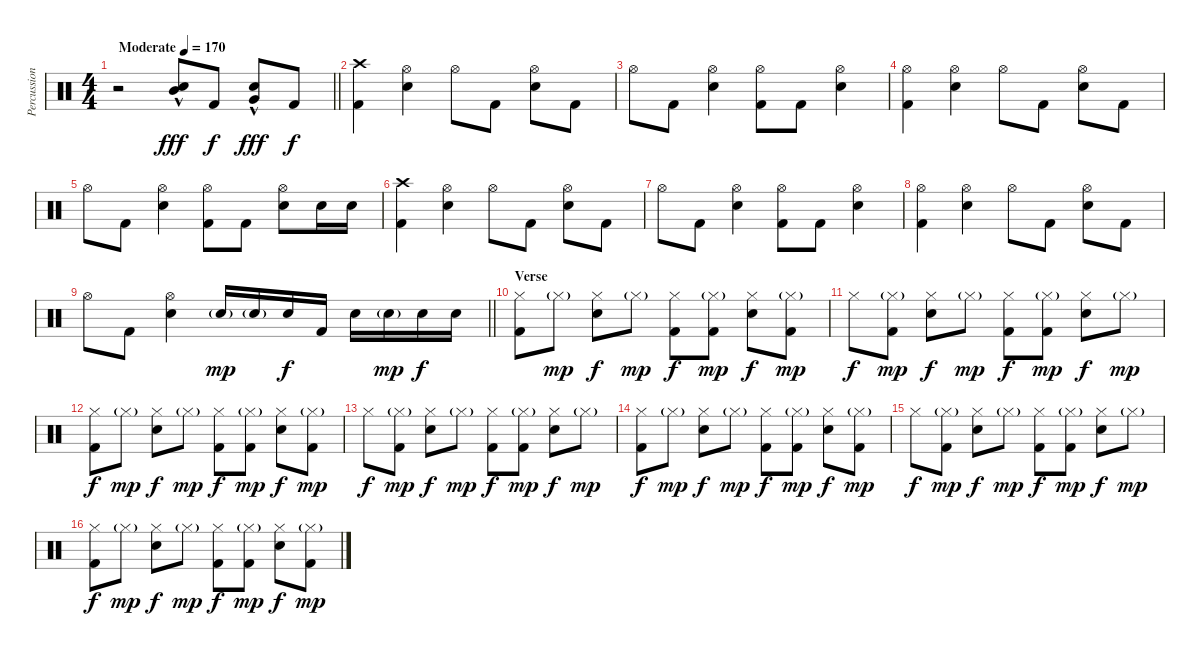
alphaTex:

\track ("Percussion" "Percussion") {instrument percussion}
\staff {score}
\articulation defaults
\ts (4 4)
\tempo (170 "Moderate")
\clef neutral
\barLineRight lightlight
\ks c
r.2{dy fff volume 16} ("Mid Tom (hit)"{hac} "Electric Snare (hit)").8 "Kick (hit) 2".8{dy f} ("Very Low Tom (hit)"{hac} "Electric Snare (hit)").8{dy fff} "Kick (hit) 2".8{dy f} |
("Crash high (hit)" "Kick (hit) 2").4{volume 13} ("Hi-Hat (open)" "Electric Snare (hit)").4 "Hi-Hat (open)".8 "Kick (hit) 2".8 ("Hi-Hat (open)" "Electric Snare (hit)").8 "Kick (hit) 2".8 |
"Hi-Hat (open)".8 "Kick (hit) 2".8 ("Hi-Hat (open)" "Electric Snare (hit)").4 ("Hi-Hat (open)" "Kick (hit) 2").8 "Kick (hit) 2".8 ("Hi-Hat (open)" "Electric Snare (hit)").4 |
("Hi-Hat (open)" "Kick (hit) 2").4 ("Hi-Hat (open)" "Electric Snare (hit)").4 "Hi-Hat (open)".8 "Kick (hit) 2".8 ("Hi-Hat (open)" "Electric Snare (hit)").8 "Kick (hit) 2".8 |
"Hi-Hat (open)".8 "Kick (hit) 2".8 ("Hi-Hat (open)" "Electric Snare (hit)").4 ("Hi-Hat (open)" "Kick (hit) 2").8 "Kick (hit) 2".8 ("Hi-Hat (open)" "Electric Snare (hit)").8 "Electric Snare (hit)".16 "Electric Snare (hit)".16 |
("Crash high (hit)" "Kick (hit) 2").4 ("Hi-Hat (open)" "Electric Snare (hit)").4 "Hi-Hat (open)".8 "Kick (hit) 2".8 ("Hi-Hat (open)" "Electric Snare (hit)").8 "Kick (hit) 2".8 |
"Hi-Hat (open)".8 "Kick (hit) 2".8 ("Hi-Hat (open)" "Electric Snare (hit)").4 ("Hi-Hat (open)" "Kick (hit) 2").8 "Kick (hit) 2".8 ("Hi-Hat (open)" "Electric Snare (hit)").4 |
("Hi-Hat (open)" "Kick (hit) 2").4 ("Hi-Hat (open)" "Electric Snare (hit)").4 "Hi-Hat (open)".8 "Kick (hit) 2".8 ("Hi-Hat (open)" "Electric Snare (hit)").8 "Kick (hit) 2".8 |
\barLineRight lightlight "Hi-Hat (open)".8 "Kick (hit) 2".8
("Hi-Hat (open)" "Electric Snare (hit)").4 "Electric Snare (hit)"{g}.16{dy mp} "Electric Snare (hit)"{g}.16 "Electric Snare (hit)".16{dy f} "Kick (hit) 2".16 "Electric Snare (hit)".16 "Electric Snare (hit)"{g}.16{dy mp} "Electric Snare (hit)".16{dy f} "Electric Snare (hit)".16 |
\section ("" "Verse")
("Hi-Hat (closed)" "Kick (hit) 2").8 "Hi-Hat (closed)"{g}.8{dy mp} ("Hi-Hat (closed)" "Electric Snare (hit)").8{dy f} "Hi-Hat (closed)"{g}.8{dy mp} ("Hi-Hat (closed)" "Kick (hit) 2").8{dy f} ("Hi-Hat (closed)"{g} "Kick (hit) 2").8{dy mp} ("Hi-Hat (closed)" "Electric Snare (hit)").8{dy f} ("Hi-Hat (closed)"{g} "Kick (hit) 2").8{dy mp} |
"Hi-Hat (closed)".8{dy f} ("Hi-Hat (closed)"{g} "Kick (hit) 2").8{dy mp} ("Hi-Hat (closed)" "Electric Snare (hit)").8{dy f} "Hi-Hat (closed)"{g}.8{dy mp} ("Hi-Hat (closed)" "Kick (hit) 2").8{dy f} ("Hi-Hat (closed)"{g} "Kick (hit) 2").8{dy mp} ("Hi-Hat (closed)" "Electric Snare (hit)").8{dy f} "Hi-Hat (closed)"{g}.8{dy mp} |
("Hi-Hat (closed)" "Kick (hit) 2").8{dy f} "Hi-Hat (closed)"{g}.8{dy mp} ("Hi-Hat (closed)" "Electric Snare (hit)").8{dy f} "Hi-Hat (closed)"{g}.8{dy mp} ("Hi-Hat (closed)" "Kick (hit) 2").8{dy f} ("Hi-Hat (closed)"{g} "Kick (hit) 2").8{dy mp} ("Hi-Hat (closed)" "Electric Snare (hit)").8{dy f} ("Hi-Hat (closed)"{g} "Kick (hit) 2").8{dy mp} |
"Hi-Hat (closed)".8{dy f} ("Hi-Hat (closed)"{g} "Kick (hit) 2").8{dy mp} ("Hi-Hat (closed)" "Electric Snare (hit)").8{dy f} "Hi-Hat (closed)"{g}.8{dy mp} ("Hi-Hat (closed)" "Kick (hit) 2").8{dy f} ("Hi-Hat (closed)"{g} "Kick (hit) 2").8{dy mp} ("Hi-Hat (closed)" "Electric Snare (hit)").8{dy f} "Hi-Hat (closed)"{g}.8{dy mp} |
("Hi-Hat (closed)" "Kick (hit) 2").8{dy f} "Hi-Hat (closed)"{g}.8{dy mp} ("Hi-Hat (closed)" "Electric Snare (hit)").8{dy f} "Hi-Hat (closed)"{g}.8{dy mp} ("Hi-Hat (closed)" "Kick (hit) 2").8{dy f} ("Hi-Hat (closed)"{g} "Kick (hit) 2").8{dy mp} ("Hi-Hat (closed)" "Electric Snare (hit)").8{dy f} ("Hi-Hat (closed)"{g} "Kick (hit) 2").8{dy mp} |
"Hi-Hat (closed)".8{dy f} ("Hi-Hat (closed)"{g} "Kick (hit) 2").8{dy mp} ("Hi-Hat (closed)" "Electric Snare (hit)").8{dy f} "Hi-Hat (closed)"{g}.8{dy mp} ("Hi-Hat (closed)" "Kick (hit) 2").8{dy f} ("Hi-Hat (closed)"{g} "Kick (hit) 2").8{dy mp} ("Hi-Hat (closed)" "Electric Snare (hit)").8{dy f} "Hi-Hat (closed)"{g}.8{dy mp} |
("Hi-Hat (closed)" "Kick (hit) 2").8{dy f} "Hi-Hat (closed)"{g}.8{dy mp} ("Hi-Hat (closed)" "Electric Snare (hit)").8{dy f} "Hi-Hat (closed)"{g}.8{dy mp} ("Hi-Hat (closed)" "Kick (hit) 2").8{dy f} ("Hi-Hat (closed)"{g} "Kick (hit) 2").8{dy mp} ("Hi-Hat (closed)" "Electric Snare (hit)").8{dy f} ("Hi-Hat (closed)"{g} "Kick (hit) 2").8{dy mp}
